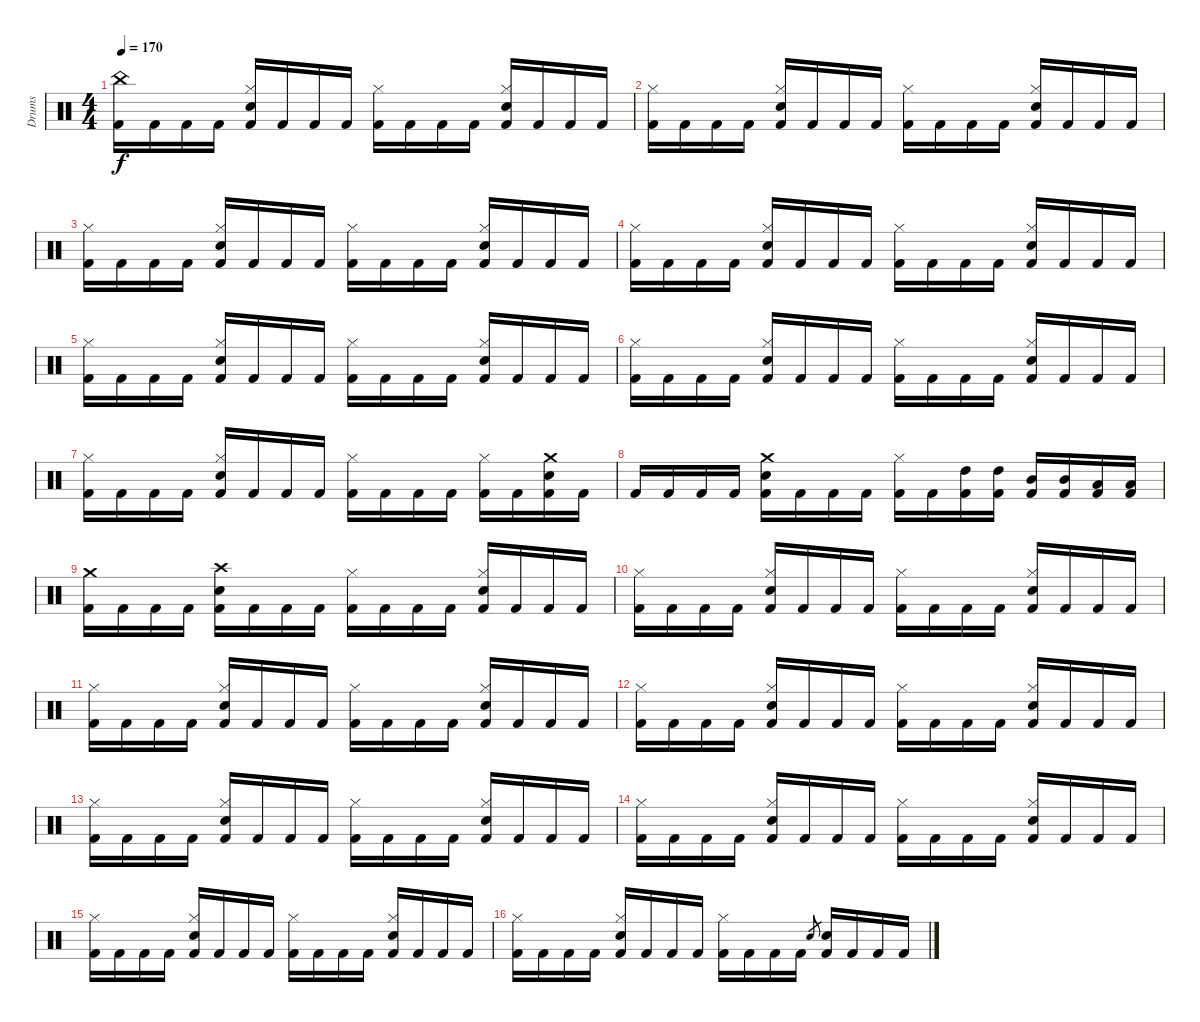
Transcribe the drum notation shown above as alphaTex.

\track ("Drums" "Drums") {instrument percussion}
\staff {score}
\articulation defaults
\ts (4 4)
\tempo 170
\clef neutral
\ks c
("China (hit)" "Kick (hit) 2").16{dy f} "Kick (hit) 2".16 "Kick (hit) 2".16 "Kick (hit) 2".16 ("Hi-Hat (closed)" "Snare (hit) 2" "Kick (hit) 2").16 "Kick (hit) 2".16 "Kick (hit) 2".16 "Kick (hit) 2".16 ("Hi-Hat (closed)" "Kick (hit) 2").16 "Kick (hit) 2".16 "Kick (hit) 2".16 "Kick (hit) 2".16 ("Hi-Hat (closed)" "Snare (hit) 2" "Kick (hit) 2").16 "Kick (hit) 2".16 "Kick (hit) 2".16 "Kick (hit) 2".16 |
("Hi-Hat (closed)" "Kick (hit) 2").16 "Kick (hit) 2".16 "Kick (hit) 2".16 "Kick (hit) 2".16 ("Hi-Hat (closed)" "Snare (hit) 2" "Kick (hit) 2").16 "Kick (hit) 2".16 "Kick (hit) 2".16 "Kick (hit) 2".16 ("Hi-Hat (closed)" "Kick (hit) 2").16 "Kick (hit) 2".16 "Kick (hit) 2".16 "Kick (hit) 2".16 ("Hi-Hat (closed)" "Snare (hit) 2" "Kick (hit) 2").16 "Kick (hit) 2".16 "Kick (hit) 2".16 "Kick (hit) 2".16 |
("Hi-Hat (closed)" "Kick (hit) 2").16 "Kick (hit) 2".16 "Kick (hit) 2".16 "Kick (hit) 2".16 ("Hi-Hat (closed)" "Snare (hit) 2" "Kick (hit) 2").16 "Kick (hit) 2".16 "Kick (hit) 2".16 "Kick (hit) 2".16 ("Hi-Hat (closed)" "Kick (hit) 2").16 "Kick (hit) 2".16 "Kick (hit) 2".16 "Kick (hit) 2".16 ("Hi-Hat (closed)" "Snare (hit) 2" "Kick (hit) 2").16 "Kick (hit) 2".16 "Kick (hit) 2".16 "Kick (hit) 2".16 |
("Hi-Hat (closed)" "Kick (hit) 2").16 "Kick (hit) 2".16 "Kick (hit) 2".16 "Kick (hit) 2".16 ("Hi-Hat (closed)" "Snare (hit) 2" "Kick (hit) 2").16 "Kick (hit) 2".16 "Kick (hit) 2".16 "Kick (hit) 2".16 ("Hi-Hat (closed)" "Kick (hit) 2").16 "Kick (hit) 2".16 "Kick (hit) 2".16 "Kick (hit) 2".16 ("Hi-Hat (closed)" "Snare (hit) 2" "Kick (hit) 2").16 "Kick (hit) 2".16 "Kick (hit) 2".16 "Kick (hit) 2".16 |
("Hi-Hat (closed)" "Kick (hit) 2").16 "Kick (hit) 2".16 "Kick (hit) 2".16 "Kick (hit) 2".16 ("Hi-Hat (closed)" "Snare (hit) 2" "Kick (hit) 2").16 "Kick (hit) 2".16 "Kick (hit) 2".16 "Kick (hit) 2".16 ("Hi-Hat (closed)" "Kick (hit) 2").16 "Kick (hit) 2".16 "Kick (hit) 2".16 "Kick (hit) 2".16 ("Hi-Hat (closed)" "Snare (hit) 2" "Kick (hit) 2").16 "Kick (hit) 2".16 "Kick (hit) 2".16 "Kick (hit) 2".16 |
("Hi-Hat (closed)" "Kick (hit) 2").16 "Kick (hit) 2".16 "Kick (hit) 2".16 "Kick (hit) 2".16 ("Hi-Hat (closed)" "Snare (hit) 2" "Kick (hit) 2").16 "Kick (hit) 2".16 "Kick (hit) 2".16 "Kick (hit) 2".16 ("Hi-Hat (closed)" "Kick (hit) 2").16 "Kick (hit) 2".16 "Kick (hit) 2".16 "Kick (hit) 2".16 ("Hi-Hat (closed)" "Snare (hit) 2" "Kick (hit) 2").16 "Kick (hit) 2".16 "Kick (hit) 2".16 "Kick (hit) 2".16 |
("Hi-Hat (closed)" "Kick (hit) 2").16 "Kick (hit) 2".16 "Kick (hit) 2".16 "Kick (hit) 2".16 ("Hi-Hat (closed)" "Snare (hit) 2" "Kick (hit) 2").16 "Kick (hit) 2".16 "Kick (hit) 2".16 "Kick (hit) 2".16 ("Hi-Hat (closed)" "Kick (hit) 2").16 "Kick (hit) 2".16 "Kick (hit) 2".16 "Kick (hit) 2".16 ("Hi-Hat (closed)" "Kick (hit) 2").16 "Kick (hit) 2".16 ("Crash medium (hit)" "Snare (hit) 2" "Kick (hit) 2").16 "Kick (hit) 2".16 |
"Kick (hit) 2".16 "Kick (hit) 2".16 "Kick (hit) 2".16 "Kick (hit) 2".16 ("Crash medium (hit)" "Snare (hit) 2" "Kick (hit) 2").16 "Kick (hit) 2".16 "Kick (hit) 2".16 "Kick (hit) 2".16 ("Hi-Hat (closed)" "Kick (hit) 2").16 "Kick (hit) 2".16 ("High Tom (hit)" "Kick (hit) 2").16 ("High Tom (hit)" "Kick (hit) 2").16 ("Mid Tom (hit)" "Kick (hit) 2").16 ("Mid Tom (hit)" "Kick (hit) 2").16 ("Low Tom (hit)" "Kick (hit) 2").16 ("Low Tom (hit)" "Kick (hit) 2").16 |
("Crash medium (hit)" "Kick (hit) 2").16 "Kick (hit) 2".16 "Kick (hit) 2".16 "Kick (hit) 2".16 ("Crash high (hit)" "Snare (hit) 2" "Kick (hit) 2").16 "Kick (hit) 2".16 "Kick (hit) 2".16 "Kick (hit) 2".16 ("Hi-Hat (closed)" "Kick (hit) 2").16 "Kick (hit) 2".16 "Kick (hit) 2".16 "Kick (hit) 2".16 ("Hi-Hat (closed)" "Snare (hit) 2" "Kick (hit) 2").16 "Kick (hit) 2".16 "Kick (hit) 2".16 "Kick (hit) 2".16 |
("Hi-Hat (closed)" "Kick (hit) 2").16 "Kick (hit) 2".16 "Kick (hit) 2".16 "Kick (hit) 2".16 ("Hi-Hat (closed)" "Snare (hit) 2" "Kick (hit) 2").16 "Kick (hit) 2".16 "Kick (hit) 2".16 "Kick (hit) 2".16 ("Hi-Hat (closed)" "Kick (hit) 2").16 "Kick (hit) 2".16 "Kick (hit) 2".16 "Kick (hit) 2".16 ("Hi-Hat (closed)" "Snare (hit) 2" "Kick (hit) 2").16 "Kick (hit) 2".16 "Kick (hit) 2".16 "Kick (hit) 2".16 |
("Hi-Hat (closed)" "Kick (hit) 2").16 "Kick (hit) 2".16 "Kick (hit) 2".16 "Kick (hit) 2".16 ("Hi-Hat (closed)" "Snare (hit) 2" "Kick (hit) 2").16 "Kick (hit) 2".16 "Kick (hit) 2".16 "Kick (hit) 2".16 ("Hi-Hat (closed)" "Kick (hit) 2").16 "Kick (hit) 2".16 "Kick (hit) 2".16 "Kick (hit) 2".16 ("Hi-Hat (closed)" "Snare (hit) 2" "Kick (hit) 2").16 "Kick (hit) 2".16 "Kick (hit) 2".16 "Kick (hit) 2".16 |
("Hi-Hat (closed)" "Kick (hit) 2").16 "Kick (hit) 2".16 "Kick (hit) 2".16 "Kick (hit) 2".16 ("Hi-Hat (closed)" "Snare (hit) 2" "Kick (hit) 2").16 "Kick (hit) 2".16 "Kick (hit) 2".16 "Kick (hit) 2".16 ("Hi-Hat (closed)" "Kick (hit) 2").16 "Kick (hit) 2".16 "Kick (hit) 2".16 "Kick (hit) 2".16 ("Hi-Hat (closed)" "Snare (hit) 2" "Kick (hit) 2").16 "Kick (hit) 2".16 "Kick (hit) 2".16 "Kick (hit) 2".16 |
("Hi-Hat (closed)" "Kick (hit) 2").16 "Kick (hit) 2".16 "Kick (hit) 2".16 "Kick (hit) 2".16 ("Hi-Hat (closed)" "Snare (hit) 2" "Kick (hit) 2").16 "Kick (hit) 2".16 "Kick (hit) 2".16 "Kick (hit) 2".16 ("Hi-Hat (closed)" "Kick (hit) 2").16 "Kick (hit) 2".16 "Kick (hit) 2".16 "Kick (hit) 2".16 ("Hi-Hat (closed)" "Snare (hit) 2" "Kick (hit) 2").16 "Kick (hit) 2".16 "Kick (hit) 2".16 "Kick (hit) 2".16 |
("Hi-Hat (closed)" "Kick (hit) 2").16 "Kick (hit) 2".16 "Kick (hit) 2".16 "Kick (hit) 2".16 ("Hi-Hat (closed)" "Snare (hit) 2" "Kick (hit) 2").16 "Kick (hit) 2".16 "Kick (hit) 2".16 "Kick (hit) 2".16 ("Hi-Hat (closed)" "Kick (hit) 2").16 "Kick (hit) 2".16 "Kick (hit) 2".16 "Kick (hit) 2".16 ("Hi-Hat (closed)" "Snare (hit) 2" "Kick (hit) 2").16 "Kick (hit) 2".16 "Kick (hit) 2".16 "Kick (hit) 2".16 |
("Hi-Hat (closed)" "Kick (hit) 2").16 "Kick (hit) 2".16 "Kick (hit) 2".16 "Kick (hit) 2".16 ("Hi-Hat (closed)" "Snare (hit) 2" "Kick (hit) 2").16 "Kick (hit) 2".16 "Kick (hit) 2".16 "Kick (hit) 2".16 ("Hi-Hat (closed)" "Kick (hit) 2").16 "Kick (hit) 2".16 "Kick (hit) 2".16 "Kick (hit) 2".16 ("Hi-Hat (closed)" "Snare (hit) 2" "Kick (hit) 2").16 "Kick (hit) 2".16 "Kick (hit) 2".16 "Kick (hit) 2".16 |
("Hi-Hat (closed)" "Kick (hit) 2").16 "Kick (hit) 2".16 "Kick (hit) 2".16 "Kick (hit) 2".16 ("Hi-Hat (closed)" "Snare (hit) 2" "Kick (hit) 2").16 "Kick (hit) 2".16 "Kick (hit) 2".16 "Kick (hit) 2".16 ("Hi-Hat (closed)" "Kick (hit) 2").16 "Kick (hit) 2".16 "Kick (hit) 2".16 "Kick (hit) 2".16 "Snare (hit) 2".8{gr} ("Snare (hit) 2" "Kick (hit) 2").16 "Kick (hit) 2".16 "Kick (hit) 2".16 "Kick (hit) 2".16
